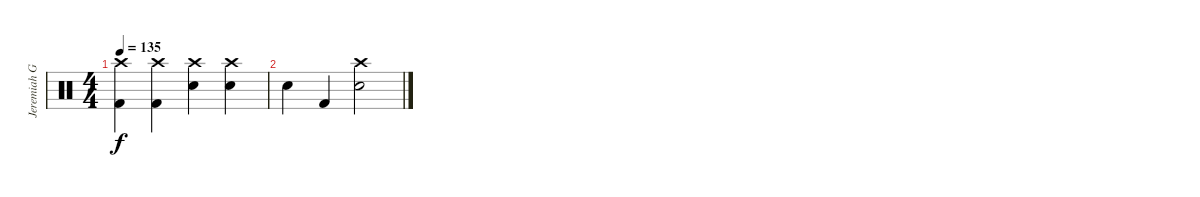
\track ("Jeremiah Green" "Jeremiah G") {instrument percussion}
\staff {score}
\articulation defaults
\ts (4 4)
\tempo 135
\clef neutral
\ks c
("Crash high (hit)" "Kick (hit) 2").4{dy f volume 0} ("Crash high (hit)" "Kick (hit) 2").4 ("Crash high (hit)" "Electric Snare (hit)").4 ("Crash high (hit)" "Electric Snare (hit)").4 |
"Electric Snare (hit)".4 "Kick (hit) 2".4 ("Crash high (hit)" "Electric Snare (hit)").2
